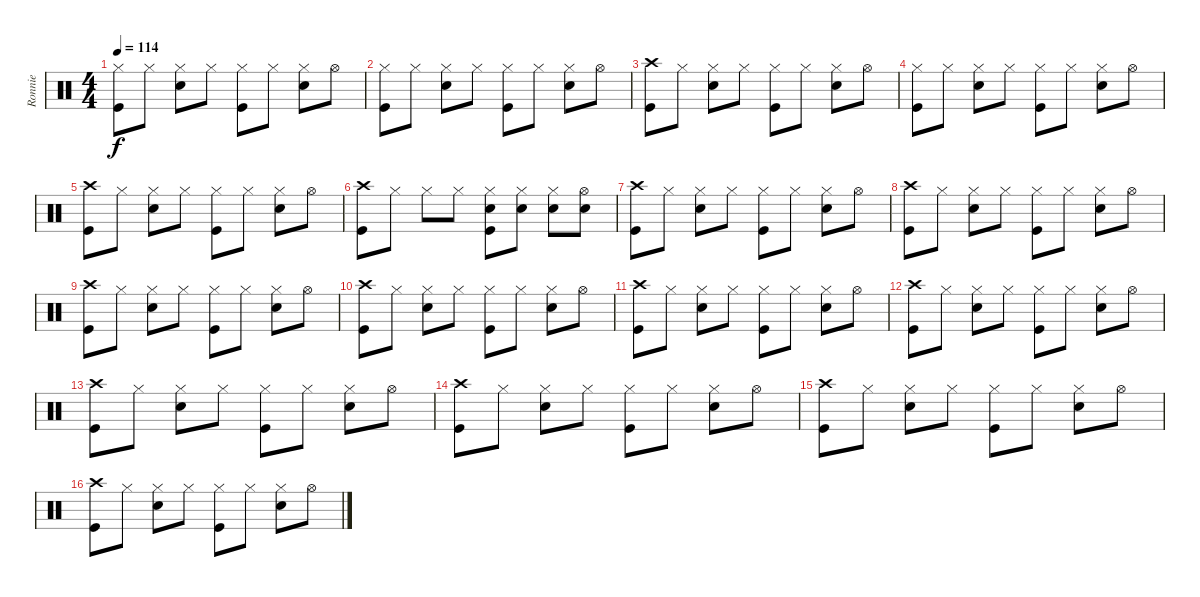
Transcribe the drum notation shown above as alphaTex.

\track ("Ronnie" "Ronnie") {instrument percussion}
\staff {score}
\articulation defaults
\ts (4 4)
\tempo 114
\clef neutral
\ks c
("Hi-Hat (closed)" "Kick (hit)").8{dy f} "Hi-Hat (closed)".8 ("Hi-Hat (closed)" "Electric Snare (hit)").8 "Hi-Hat (closed)".8 ("Hi-Hat (closed)" "Kick (hit)").8 "Hi-Hat (closed)".8 ("Hi-Hat (closed)" "Electric Snare (hit)").8 "Hi-Hat (open)".8 |
("Hi-Hat (closed)" "Kick (hit)").8 "Hi-Hat (closed)".8 ("Hi-Hat (closed)" "Electric Snare (hit)").8 "Hi-Hat (closed)".8 ("Hi-Hat (closed)" "Kick (hit)").8 "Hi-Hat (closed)".8 ("Hi-Hat (closed)" "Electric Snare (hit)").8 "Hi-Hat (open)".8 |
("Crash high (hit)" "Kick (hit)").8 "Hi-Hat (closed)".8 ("Hi-Hat (closed)" "Electric Snare (hit)").8 "Hi-Hat (closed)".8 ("Hi-Hat (closed)" "Kick (hit)").8 "Hi-Hat (closed)".8 ("Hi-Hat (closed)" "Electric Snare (hit)").8 "Hi-Hat (open)".8 |
("Hi-Hat (closed)" "Kick (hit)").8 "Hi-Hat (closed)".8 ("Hi-Hat (closed)" "Electric Snare (hit)").8 "Hi-Hat (closed)".8 ("Hi-Hat (closed)" "Kick (hit)").8 "Hi-Hat (closed)".8 ("Hi-Hat (closed)" "Electric Snare (hit)").8 "Hi-Hat (open)".8 |
("Crash high (hit)" "Kick (hit)").8 "Hi-Hat (closed)".8 ("Hi-Hat (closed)" "Electric Snare (hit)").8 "Hi-Hat (closed)".8 ("Hi-Hat (closed)" "Kick (hit)").8 "Hi-Hat (closed)".8 ("Hi-Hat (closed)" "Electric Snare (hit)").8 "Hi-Hat (open)".8 |
("Crash high (hit)" "Kick (hit)").8 "Hi-Hat (closed)".8 "Hi-Hat (closed)".8 "Hi-Hat (closed)".8 ("Hi-Hat (closed)" "Electric Snare (hit)" "Kick (hit)").8 ("Hi-Hat (closed)" "Electric Snare (hit)").8 ("Hi-Hat (closed)" "Electric Snare (hit)").8 ("Hi-Hat (open)" "Electric Snare (hit)").8 |
("Crash high (hit)" "Kick (hit)").8 "Hi-Hat (closed)".8 ("Hi-Hat (closed)" "Electric Snare (hit)").8 "Hi-Hat (closed)".8 ("Hi-Hat (closed)" "Kick (hit)").8 "Hi-Hat (closed)".8 ("Hi-Hat (closed)" "Electric Snare (hit)").8 "Hi-Hat (open)".8 |
("Crash high (hit)" "Kick (hit)").8 "Hi-Hat (closed)".8 ("Hi-Hat (closed)" "Electric Snare (hit)").8 "Hi-Hat (closed)".8 ("Hi-Hat (closed)" "Kick (hit)").8 "Hi-Hat (closed)".8 ("Hi-Hat (closed)" "Electric Snare (hit)").8 "Hi-Hat (open)".8 |
("Crash high (hit)" "Kick (hit)").8 "Hi-Hat (closed)".8 ("Hi-Hat (closed)" "Electric Snare (hit)").8 "Hi-Hat (closed)".8 ("Hi-Hat (closed)" "Kick (hit)").8 "Hi-Hat (closed)".8 ("Hi-Hat (closed)" "Electric Snare (hit)").8 "Hi-Hat (open)".8 |
("Crash high (hit)" "Kick (hit)").8 "Hi-Hat (closed)".8 ("Hi-Hat (closed)" "Electric Snare (hit)").8 "Hi-Hat (closed)".8 ("Hi-Hat (closed)" "Kick (hit)").8 "Hi-Hat (closed)".8 ("Hi-Hat (closed)" "Electric Snare (hit)").8 "Hi-Hat (open)".8 |
("Crash high (hit)" "Kick (hit)").8 "Hi-Hat (closed)".8 ("Hi-Hat (closed)" "Electric Snare (hit)").8 "Hi-Hat (closed)".8 ("Hi-Hat (closed)" "Kick (hit)").8 "Hi-Hat (closed)".8 ("Hi-Hat (closed)" "Electric Snare (hit)").8 "Hi-Hat (open)".8 |
("Crash high (hit)" "Kick (hit)").8 "Hi-Hat (closed)".8 ("Hi-Hat (closed)" "Electric Snare (hit)").8 "Hi-Hat (closed)".8 ("Hi-Hat (closed)" "Kick (hit)").8 "Hi-Hat (closed)".8 ("Hi-Hat (closed)" "Electric Snare (hit)").8 "Hi-Hat (open)".8 |
("Crash high (hit)" "Kick (hit)").8 "Hi-Hat (closed)".8 ("Hi-Hat (closed)" "Electric Snare (hit)").8 "Hi-Hat (closed)".8 ("Hi-Hat (closed)" "Kick (hit)").8 "Hi-Hat (closed)".8 ("Hi-Hat (closed)" "Electric Snare (hit)").8 "Hi-Hat (open)".8 |
("Crash high (hit)" "Kick (hit)").8 "Hi-Hat (closed)".8 ("Hi-Hat (closed)" "Electric Snare (hit)").8 "Hi-Hat (closed)".8 ("Hi-Hat (closed)" "Kick (hit)").8 "Hi-Hat (closed)".8 ("Hi-Hat (closed)" "Electric Snare (hit)").8 "Hi-Hat (open)".8 |
("Crash high (hit)" "Kick (hit)").8 "Hi-Hat (closed)".8 ("Hi-Hat (closed)" "Electric Snare (hit)").8 "Hi-Hat (closed)".8 ("Hi-Hat (closed)" "Kick (hit)").8 "Hi-Hat (closed)".8 ("Hi-Hat (closed)" "Electric Snare (hit)").8 "Hi-Hat (open)".8 |
("Crash high (hit)" "Kick (hit)").8 "Hi-Hat (closed)".8 ("Hi-Hat (closed)" "Electric Snare (hit)").8 "Hi-Hat (closed)".8 ("Hi-Hat (closed)" "Kick (hit)").8 "Hi-Hat (closed)".8 ("Hi-Hat (closed)" "Electric Snare (hit)").8 "Hi-Hat (open)".8
